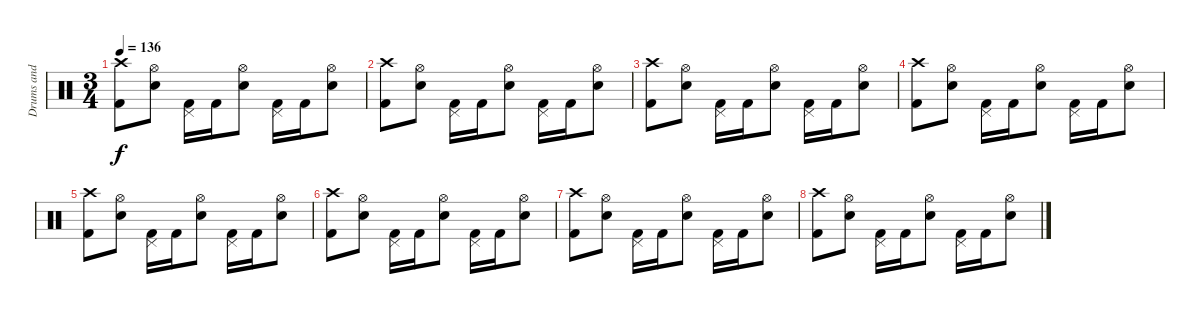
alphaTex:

\track ("Drums and percussion" "Drums and ") {instrument percussion}
\staff {score}
\articulation defaults
\ts (3 4)
\tempo 136
\clef neutral
\ks c
("Crash high (hit)" "Kick (hit) 2").8{dy f} ("Hi-Hat (open)" "Snare (hit) 2").8 ("Pedal Hi-Hat (hit)" "Kick (hit) 2").16 "Kick (hit) 2".16 ("Hi-Hat (open)" "Snare (hit) 2").8 ("Pedal Hi-Hat (hit)" "Kick (hit) 2").16 "Kick (hit) 2".16 ("Hi-Hat (open)" "Snare (hit) 2").8 |
("Crash high (hit)" "Kick (hit) 2").8 ("Hi-Hat (open)" "Snare (hit) 2").8 ("Pedal Hi-Hat (hit)" "Kick (hit) 2").16 "Kick (hit) 2".16 ("Hi-Hat (open)" "Snare (hit) 2").8 ("Pedal Hi-Hat (hit)" "Kick (hit) 2").16 "Kick (hit) 2".16 ("Hi-Hat (open)" "Snare (hit) 2").8 |
("Crash high (hit)" "Kick (hit) 2").8 ("Hi-Hat (open)" "Snare (hit) 2").8 ("Pedal Hi-Hat (hit)" "Kick (hit) 2").16 "Kick (hit) 2".16 ("Hi-Hat (open)" "Snare (hit) 2").8 ("Pedal Hi-Hat (hit)" "Kick (hit) 2").16 "Kick (hit) 2".16 ("Hi-Hat (open)" "Snare (hit) 2").8 |
("Crash high (hit)" "Kick (hit) 2").8 ("Hi-Hat (open)" "Snare (hit) 2").8 ("Pedal Hi-Hat (hit)" "Kick (hit) 2").16 "Kick (hit) 2".16 ("Hi-Hat (open)" "Snare (hit) 2").8 ("Pedal Hi-Hat (hit)" "Kick (hit) 2").16 "Kick (hit) 2".16 ("Hi-Hat (open)" "Snare (hit) 2").8 |
("Crash high (hit)" "Kick (hit) 2").8 ("Hi-Hat (open)" "Snare (hit) 2").8 ("Pedal Hi-Hat (hit)" "Kick (hit) 2").16 "Kick (hit) 2".16 ("Hi-Hat (open)" "Snare (hit) 2").8 ("Pedal Hi-Hat (hit)" "Kick (hit) 2").16 "Kick (hit) 2".16 ("Hi-Hat (open)" "Snare (hit) 2").8 |
("Crash high (hit)" "Kick (hit) 2").8 ("Hi-Hat (open)" "Snare (hit) 2").8 ("Pedal Hi-Hat (hit)" "Kick (hit) 2").16 "Kick (hit) 2".16 ("Hi-Hat (open)" "Snare (hit) 2").8 ("Pedal Hi-Hat (hit)" "Kick (hit) 2").16 "Kick (hit) 2".16 ("Hi-Hat (open)" "Snare (hit) 2").8 |
("Crash high (hit)" "Kick (hit) 2").8 ("Hi-Hat (open)" "Snare (hit) 2").8 ("Pedal Hi-Hat (hit)" "Kick (hit) 2").16 "Kick (hit) 2".16 ("Hi-Hat (open)" "Snare (hit) 2").8 ("Pedal Hi-Hat (hit)" "Kick (hit) 2").16 "Kick (hit) 2".16 ("Hi-Hat (open)" "Snare (hit) 2").8 |
("Crash high (hit)" "Kick (hit) 2").8 ("Hi-Hat (open)" "Snare (hit) 2").8 ("Pedal Hi-Hat (hit)" "Kick (hit) 2").16 "Kick (hit) 2".16 ("Hi-Hat (open)" "Snare (hit) 2").8 ("Pedal Hi-Hat (hit)" "Kick (hit) 2").16 "Kick (hit) 2".16 ("Hi-Hat (open)" "Snare (hit) 2").8
